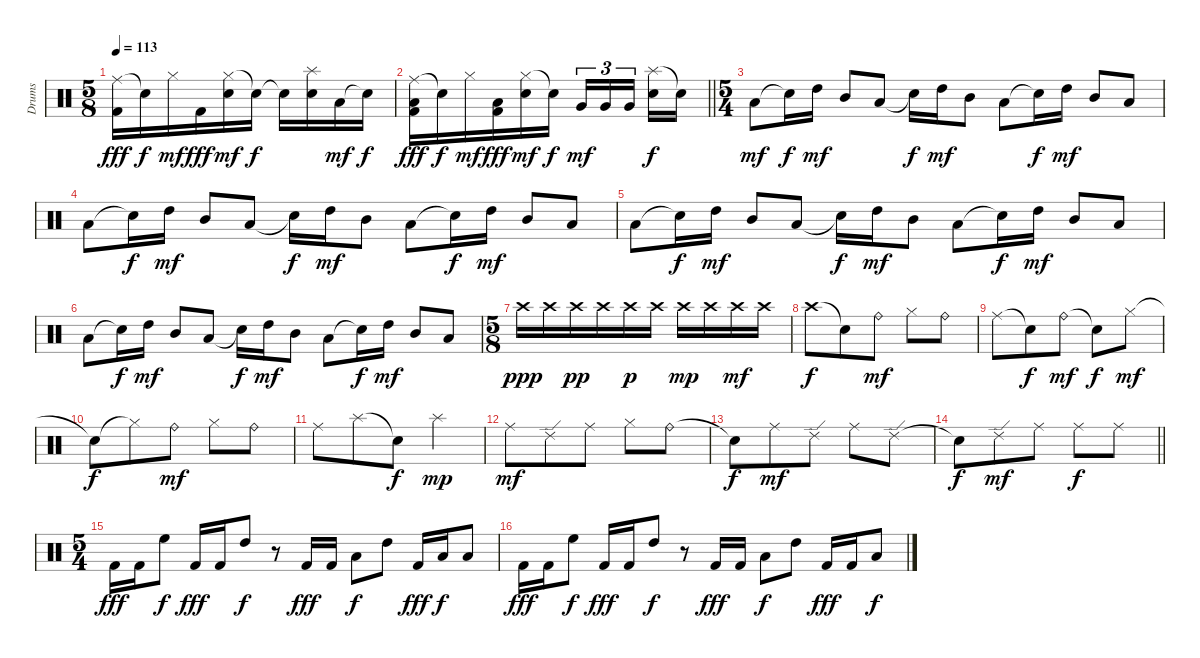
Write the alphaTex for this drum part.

\track ("Drums" "Drums") {instrument percussion}
\staff {score}
\articulation defaults
\ts (5 8)
\tempo 113
\clef neutral
\ks c
("Ride (middle)" "Kick (hit) 2").16{dy fff} "Snare (hit)"{t}.16{dy f} "Hi-Hat (closed)".16{dy mf} "Kick (hit) 2".16{dy fff} ("Hi-Hat (closed)" "Snare (hit) 2").16{dy mf} "Snare (hit)"{t}.16{dy f} "Snare (hit)"{t}.16 ("Splash (hit)" "Snare (hit) 2").16 "Low Tom (hit)".16{dy mf} "Snare (hit)"{t}.16{dy f} |
\barLineRight lightlight
("Ride (middle)" "Low Floor Tom (hit)" "Kick (hit) 2").16{dy fff} "Snare (hit)"{t}.16{dy f} "Hi-Hat (closed)".16{dy mf} ("Low Floor Tom (hit)" "Kick (hit) 2").16{dy fff} ("Hi-Hat (closed)" "Snare (hit) 2").16{dy mf} "Snare (hit)"{t}.16{dy f} "Very Low Tom (hit)".16{tu (3 2) dy mf} "Very Low Tom (hit)".16{tu (3 2)} "Very Low Tom (hit)".16{tu (3 2)} ("Splash (hit)" "Snare (hit) 2").16{dy f} "Snare (hit)"{t}.16 |
\ts (5 4)
\section ("" "")
"Low Tom (hit)".8{dy mf} "Snare (hit)"{t}.16{dy f} "High Tom (hit)".16{dy mf} "Mid Tom (hit)".8 "Low Tom (hit)".8 "Snare (hit)"{t}.16{dy f} "High Tom (hit)".16{dy mf} "Mid Tom (hit)".8 "Low Tom (hit)".8 "Snare (hit)"{t}.16{dy f} "High Tom (hit)".16{dy mf} "Mid Tom (hit)".8 "Low Tom (hit)".8 |
"Low Tom (hit)".8 "Snare (hit)"{t}.16{dy f} "High Tom (hit)".16{dy mf} "Mid Tom (hit)".8 "Low Tom (hit)".8 "Snare (hit)"{t}.16{dy f} "High Tom (hit)".16{dy mf} "Mid Tom (hit)".8 "Low Tom (hit)".8 "Snare (hit)"{t}.16{dy f} "High Tom (hit)".16{dy mf} "Mid Tom (hit)".8 "Low Tom (hit)".8 |
"Low Tom (hit)".8 "Snare (hit)"{t}.16{dy f} "High Tom (hit)".16{dy mf} "Mid Tom (hit)".8 "Low Tom (hit)".8 "Snare (hit)"{t}.16{dy f} "High Tom (hit)".16{dy mf} "Mid Tom (hit)".8 "Low Tom (hit)".8 "Snare (hit)"{t}.16{dy f} "High Tom (hit)".16{dy mf} "Mid Tom (hit)".8 "Low Tom (hit)".8 |
"Low Tom (hit)".8 "Snare (hit)"{t}.16{dy f} "High Tom (hit)".16{dy mf} "Mid Tom (hit)".8 "Low Tom (hit)".8 "Snare (hit)"{t}.16{dy f} "High Tom (hit)".16{dy mf} "Mid Tom (hit)".8 "Low Tom (hit)".8 "Snare (hit)"{t}.16{dy f} "High Tom (hit)".16{dy mf} "Mid Tom (hit)".8 "Low Tom (hit)".8 |
\ts (5 8)
"Crash high (hit)".16{dy ppp} "Crash high (hit)".16 "Crash high (hit)".16{dy pp} "Crash high (hit)".16 "Crash high (hit)".16{dy p} "Crash high (hit)".16 "Crash high (hit)".16{dy mp} "Crash high (hit)".16 "Crash high (hit)".16{dy mf} "Crash high (hit)".16 |
"Crash high (hit)".8{dy f} "Snare (hit)"{t}.8 "Ride (bell)".8{dy mf} "Hi-Hat (closed)".8 "Ride (bell)".8 |
"Ride (middle)".8 "Snare (hit)"{t}.8{dy f} "Ride (bell)".8{dy mf} "Snare (hit)"{t}.8{dy f} "Hi-Hat (closed)".8{dy mf} |
"Snare (hit)"{t}.8{dy f} "Hi-Hat (closed)"{t}.8 "Ride (bell)".8{dy mf} "Hi-Hat (closed)".8 "Ride (bell)".8 |
"Ride (middle)".8 "Splash (hit)".8 "Snare (hit)"{t}.8{dy f} "Splash (hit)".4{dy mp} |
"Ride (middle)".8{dy mf} "Ride (edge) 2".8 "Ride (middle)".8 "Hi-Hat (closed)".8 "Ride (bell)".8 |
"Snare (hit)"{t}.8{dy f} "Ride (middle)".8{dy mf} "Ride (edge) 2".8 "Ride (middle)".8 "Ride (edge) 2".8 |
\barLineRight lightlight "Snare (hit)"{t}.8{dy f} "Ride (edge) 2".8{dy mf} "Ride (middle)".8 "Ride (middle)".8{dy f} "Ride (middle)".8
|
\ts (5 4)
\section ("" "")
"Kick (hit) 2".16{dy fff} "Kick (hit) 2".16 "High Floor Tom (hit)".8{dy f} "Kick (hit) 2".16{dy fff} "Kick (hit) 2".16 "High Tom (hit)".8{dy f} r.8 "Kick (hit) 2".16{dy fff} "Kick (hit) 2".16 "Low Tom (hit)".8{dy f} "High Tom (hit)".8 "Kick (hit) 2".16{dy fff} "Low Tom (hit)".16{dy f} "Low Floor Tom (hit)".8 |
"Kick (hit) 2".16{dy fff} "Kick (hit) 2".16 "High Floor Tom (hit)".8{dy f} "Kick (hit) 2".16{dy fff} "Kick (hit) 2".16 "High Tom (hit)".8{dy f} r.8 "Kick (hit) 2".16{dy fff} "Kick (hit) 2".16 "Low Tom (hit)".8{dy f} "High Tom (hit)".8 "Kick (hit) 2".16{dy fff} "Kick (hit) 2".16 "Low Floor Tom (hit)".8{dy f}
